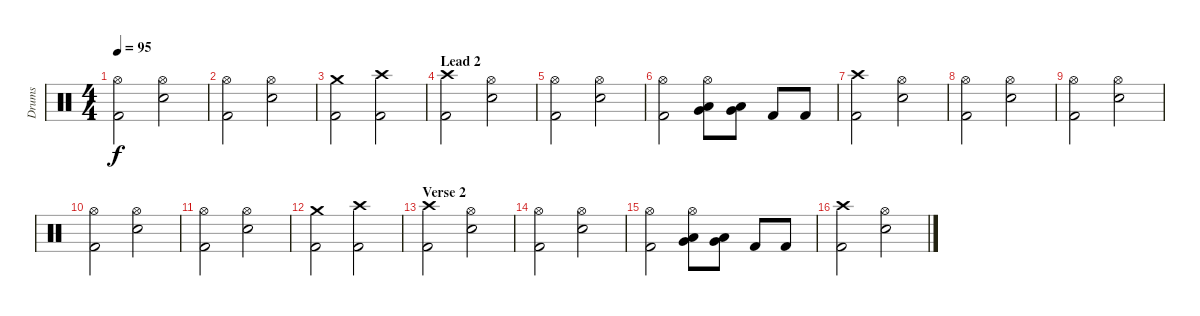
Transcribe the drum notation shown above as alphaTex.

\track ("Drums" "Drums") {instrument percussion}
\staff {score}
\articulation defaults
\ts (4 4)
\tempo 95
\clef neutral
\ks c
("Hi-Hat (open)" "Kick (hit) 2").2{dy f} ("Hi-Hat (open)" "Electric Snare (hit)").2 |
("Hi-Hat (open)" "Kick (hit) 2").2 ("Hi-Hat (open)" "Electric Snare (hit)").2 |
("Crash medium (hit)" "Kick (hit) 2").2 ("Crash high (hit)" "Kick (hit) 2").2 |
\section ("" "Lead 2")
("Crash high (hit)" "Kick (hit) 2").2 ("Hi-Hat (open)" "Electric Snare (hit)").2 |
("Hi-Hat (open)" "Kick (hit) 2").2 ("Hi-Hat (open)" "Electric Snare (hit)").2 |
("Hi-Hat (open)" "Kick (hit) 2").2 ("Hi-Hat (open)" "Low Tom (hit)" "Very Low Tom (hit)").8 ("Low Tom (hit)" "Very Low Tom (hit)").8 "Kick (hit) 2".8 "Kick (hit) 2".8 |
("Crash high (hit)" "Kick (hit) 2").2 ("Hi-Hat (open)" "Electric Snare (hit)").2 |
("Hi-Hat (open)" "Kick (hit) 2").2 ("Hi-Hat (open)" "Electric Snare (hit)").2 |
("Hi-Hat (open)" "Kick (hit) 2").2 ("Hi-Hat (open)" "Electric Snare (hit)").2 |
("Hi-Hat (open)" "Kick (hit) 2").2 ("Hi-Hat (open)" "Electric Snare (hit)").2 |
("Hi-Hat (open)" "Kick (hit) 2").2 ("Hi-Hat (open)" "Electric Snare (hit)").2 |
("Crash medium (hit)" "Kick (hit) 2").2 ("Crash high (hit)" "Kick (hit) 2").2 |
\section ("" "Verse 2")
("Crash high (hit)" "Kick (hit) 2").2 ("Hi-Hat (open)" "Electric Snare (hit)").2 |
("Hi-Hat (open)" "Kick (hit) 2").2 ("Hi-Hat (open)" "Electric Snare (hit)").2 |
("Hi-Hat (open)" "Kick (hit) 2").2 ("Hi-Hat (open)" "Low Tom (hit)" "Very Low Tom (hit)").8 ("Low Tom (hit)" "Very Low Tom (hit)").8 "Kick (hit) 2".8 "Kick (hit) 2".8 |
("Crash high (hit)" "Kick (hit) 2").2 ("Hi-Hat (open)" "Electric Snare (hit)").2
